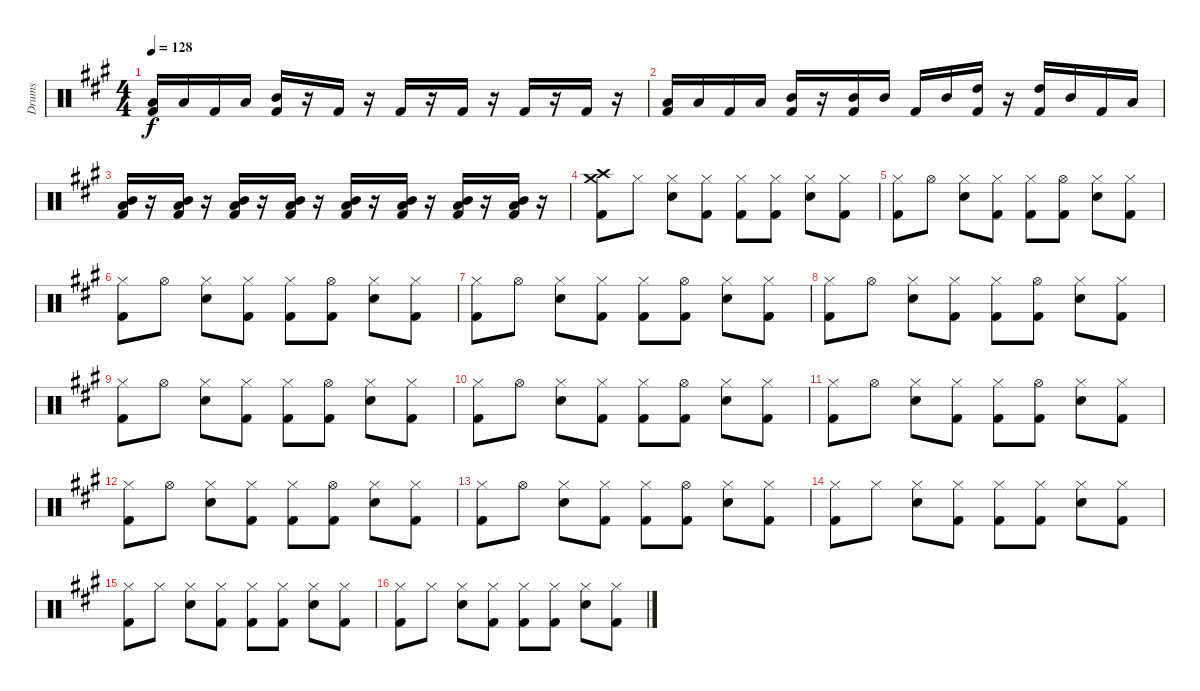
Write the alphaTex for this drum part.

\track ("Drums" "Drums") {instrument percussion}
\staff {score}
\articulation defaults
\ts (4 4)
\tempo 128
\clef neutral
\ks a
("Low Tom (hit)" "Kick (hit) 2").16{dy f} "Low Tom (hit)".16 "Kick (hit) 2".16 "Low Tom (hit)".16 ("Mid Tom (hit)" "Kick (hit) 2").16 r.16 "Kick (hit) 2".16 r.16 "Kick (hit) 2".16 r.16 "Kick (hit) 2".16 r.16 "Kick (hit) 2".16 r.16 "Kick (hit) 2".16 r.16 |
("Low Tom (hit)" "Kick (hit) 2").16 "Low Tom (hit)".16 "Kick (hit) 2".16 "Low Tom (hit)".16 ("Mid Tom (hit)" "Kick (hit) 2").16 r.16 ("Mid Tom (hit)" "Kick (hit) 2").16 "Mid Tom (hit)".16 "Kick (hit) 2".16 "Mid Tom (hit)".16 ("High Tom (hit)" "Kick (hit) 2").16 r.16 ("High Tom (hit)" "Kick (hit) 2").16 "Mid Tom (hit)".16 "Kick (hit) 2".16 "Low Tom (hit)".16 |
("Mid Tom (hit)" "Low Tom (hit)" "Kick (hit) 2").16 r.16 ("Mid Tom (hit)" "Low Tom (hit)" "Kick (hit) 2").16 r.16 ("Mid Tom (hit)" "Low Tom (hit)" "Kick (hit) 2").16 r.16 ("Mid Tom (hit)" "Low Tom (hit)" "Kick (hit) 2").16 r.16 ("Mid Tom (hit)" "Low Tom (hit)" "Kick (hit) 2").16 r.16 ("Mid Tom (hit)" "Low Tom (hit)" "Kick (hit) 2").16 r.16 ("Mid Tom (hit)" "Low Tom (hit)" "Kick (hit) 2").16 r.16 ("Mid Tom (hit)" "Low Tom (hit)" "Kick (hit) 2").16 r.16 |
("Crash medium (hit)" "Crash high (hit)" "Kick (hit) 2").8 "Hi-Hat (closed)".8 ("Hi-Hat (closed)" "Snare (hit) 2").8 ("Hi-Hat (closed)" "Kick (hit) 2").8 ("Hi-Hat (closed)" "Kick (hit) 2").8 ("Hi-Hat (closed)" "Kick (hit) 2").8 ("Hi-Hat (closed)" "Snare (hit) 2").8 ("Hi-Hat (closed)" "Kick (hit) 2").8 |
("Hi-Hat (closed)" "Kick (hit) 2").8 "Hi-Hat (open)".8 ("Hi-Hat (closed)" "Snare (hit) 2").8 ("Hi-Hat (closed)" "Kick (hit) 2").8 ("Hi-Hat (closed)" "Kick (hit) 2").8 ("Hi-Hat (open)" "Kick (hit) 2").8 ("Hi-Hat (closed)" "Snare (hit) 2").8 ("Hi-Hat (closed)" "Kick (hit) 2").8 |
("Hi-Hat (closed)" "Kick (hit) 2").8 "Hi-Hat (open)".8 ("Hi-Hat (closed)" "Snare (hit) 2").8 ("Hi-Hat (closed)" "Kick (hit) 2").8 ("Hi-Hat (closed)" "Kick (hit) 2").8 ("Hi-Hat (open)" "Kick (hit) 2").8 ("Hi-Hat (closed)" "Snare (hit) 2").8 ("Hi-Hat (closed)" "Kick (hit) 2").8 |
("Hi-Hat (closed)" "Kick (hit) 2").8 "Hi-Hat (open)".8 ("Hi-Hat (closed)" "Snare (hit) 2").8 ("Hi-Hat (closed)" "Kick (hit) 2").8 ("Hi-Hat (closed)" "Kick (hit) 2").8 ("Hi-Hat (open)" "Kick (hit) 2").8 ("Hi-Hat (closed)" "Snare (hit) 2").8 ("Hi-Hat (closed)" "Kick (hit) 2").8 |
("Hi-Hat (closed)" "Kick (hit) 2").8 "Hi-Hat (open)".8 ("Hi-Hat (closed)" "Snare (hit) 2").8 ("Hi-Hat (closed)" "Kick (hit) 2").8 ("Hi-Hat (closed)" "Kick (hit) 2").8 ("Hi-Hat (open)" "Kick (hit) 2").8 ("Hi-Hat (closed)" "Snare (hit) 2").8 ("Hi-Hat (closed)" "Kick (hit) 2").8 |
("Hi-Hat (closed)" "Kick (hit) 2").8 "Hi-Hat (open)".8 ("Hi-Hat (closed)" "Snare (hit) 2").8 ("Hi-Hat (closed)" "Kick (hit) 2").8 ("Hi-Hat (closed)" "Kick (hit) 2").8 ("Hi-Hat (open)" "Kick (hit) 2").8 ("Hi-Hat (closed)" "Snare (hit) 2").8 ("Hi-Hat (closed)" "Kick (hit) 2").8 |
("Hi-Hat (closed)" "Kick (hit) 2").8 "Hi-Hat (open)".8 ("Hi-Hat (closed)" "Snare (hit) 2").8 ("Hi-Hat (closed)" "Kick (hit) 2").8 ("Hi-Hat (closed)" "Kick (hit) 2").8 ("Hi-Hat (open)" "Kick (hit) 2").8 ("Hi-Hat (closed)" "Snare (hit) 2").8 ("Hi-Hat (closed)" "Kick (hit) 2").8 |
("Hi-Hat (closed)" "Kick (hit) 2").8 "Hi-Hat (open)".8 ("Hi-Hat (closed)" "Snare (hit) 2").8 ("Hi-Hat (closed)" "Kick (hit) 2").8 ("Hi-Hat (closed)" "Kick (hit) 2").8 ("Hi-Hat (open)" "Kick (hit) 2").8 ("Hi-Hat (closed)" "Snare (hit) 2").8 ("Hi-Hat (closed)" "Kick (hit) 2").8 |
("Hi-Hat (closed)" "Kick (hit) 2").8 "Hi-Hat (open)".8 ("Hi-Hat (closed)" "Snare (hit) 2").8 ("Hi-Hat (closed)" "Kick (hit) 2").8 ("Hi-Hat (closed)" "Kick (hit) 2").8 ("Hi-Hat (open)" "Kick (hit) 2").8 ("Hi-Hat (closed)" "Snare (hit) 2").8 ("Hi-Hat (closed)" "Kick (hit) 2").8 |
("Hi-Hat (closed)" "Kick (hit) 2").8 "Hi-Hat (open)".8 ("Hi-Hat (closed)" "Snare (hit) 2").8 ("Hi-Hat (closed)" "Kick (hit) 2").8 ("Hi-Hat (closed)" "Kick (hit) 2").8 ("Hi-Hat (open)" "Kick (hit) 2").8 ("Hi-Hat (closed)" "Snare (hit) 2").8 ("Hi-Hat (closed)" "Kick (hit) 2").8 |
("Hi-Hat (closed)" "Kick (hit) 2").8 "Hi-Hat (closed)".8 ("Hi-Hat (closed)" "Snare (hit) 2").8 ("Hi-Hat (closed)" "Kick (hit) 2").8 ("Hi-Hat (closed)" "Kick (hit) 2").8 ("Hi-Hat (closed)" "Kick (hit) 2").8 ("Hi-Hat (closed)" "Snare (hit) 2").8 ("Hi-Hat (closed)" "Kick (hit) 2").8 |
("Hi-Hat (closed)" "Kick (hit) 2").8 "Hi-Hat (closed)".8 ("Hi-Hat (closed)" "Snare (hit) 2").8 ("Hi-Hat (closed)" "Kick (hit) 2").8 ("Hi-Hat (closed)" "Kick (hit) 2").8 ("Hi-Hat (closed)" "Kick (hit) 2").8 ("Hi-Hat (closed)" "Snare (hit) 2").8 ("Hi-Hat (closed)" "Kick (hit) 2").8 |
("Hi-Hat (closed)" "Kick (hit) 2").8 "Hi-Hat (closed)".8 ("Hi-Hat (closed)" "Snare (hit) 2").8 ("Hi-Hat (closed)" "Kick (hit) 2").8 ("Hi-Hat (closed)" "Kick (hit) 2").8 ("Hi-Hat (closed)" "Kick (hit) 2").8 ("Hi-Hat (closed)" "Snare (hit) 2").8 ("Hi-Hat (closed)" "Kick (hit) 2").8
